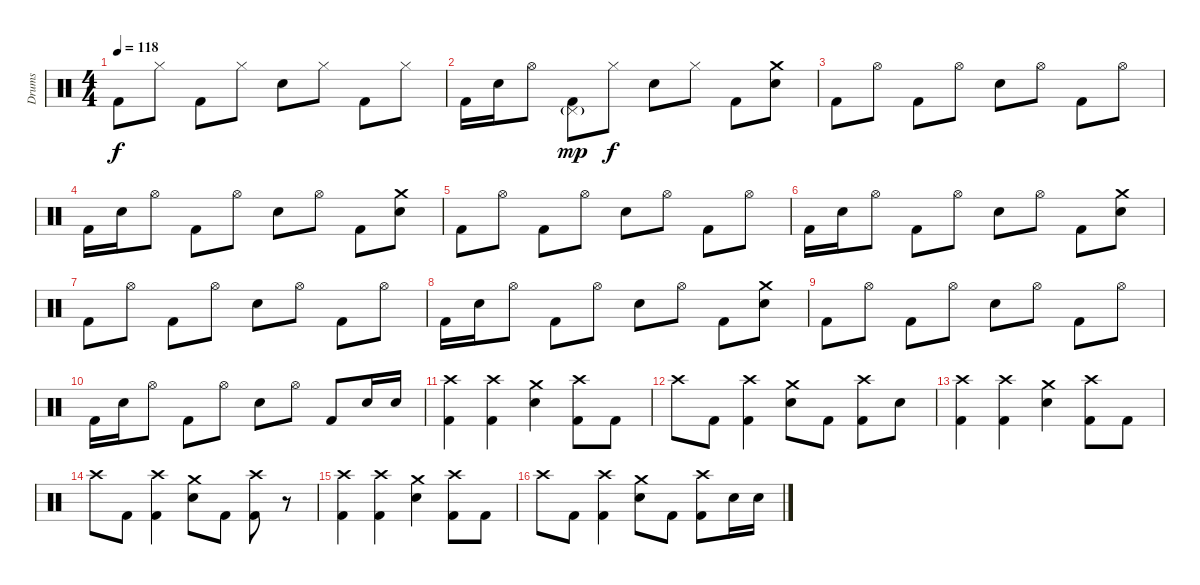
\track ("Drums" "Drums") {instrument percussion bank 5}
\staff {score}
\articulation defaults
\ts (4 4)
\tempo 118
\clef neutral
\ks c "Kick (hit) 2".8{dy f} "Hi-Hat (closed)".8 "Kick (hit) 2".8 "Hi-Hat (closed)".8 "Snare (hit) 2".8 "Hi-Hat (closed)".8 "Kick (hit) 2".8 "Hi-Hat (closed)".8
|
"Kick (hit) 2".16 "Snare (hit) 2".16 "Hi-Hat (open)".8 ("Pedal Hi-Hat (hit)"{g} "Kick (hit) 2").8{dy mp} "Hi-Hat (closed)".8{dy f} "Snare (hit) 2".8 "Hi-Hat (closed)".8 "Kick (hit) 2".8 ("Crash medium (hit)" "Snare (hit) 2").8 |
"Kick (hit) 2".8 "Hi-Hat (open)".8 "Kick (hit) 2".8 "Hi-Hat (open)".8 "Snare (hit) 2".8 "Hi-Hat (open)".8 "Kick (hit) 2".8 "Hi-Hat (open)".8 |
"Kick (hit) 2".16 "Snare (hit) 2".16 "Hi-Hat (open)".8 "Kick (hit) 2".8 "Hi-Hat (open)".8 "Snare (hit) 2".8 "Hi-Hat (open)".8 "Kick (hit) 2".8 ("Crash medium (hit)" "Snare (hit) 2").8 |
"Kick (hit) 2".8 "Hi-Hat (open)".8 "Kick (hit) 2".8 "Hi-Hat (open)".8 "Snare (hit) 2".8 "Hi-Hat (open)".8 "Kick (hit) 2".8 "Hi-Hat (open)".8 |
"Kick (hit) 2".16 "Snare (hit) 2".16 "Hi-Hat (open)".8 "Kick (hit) 2".8 "Hi-Hat (open)".8 "Snare (hit) 2".8 "Hi-Hat (open)".8 "Kick (hit) 2".8 ("Crash medium (hit)" "Snare (hit) 2").8 |
"Kick (hit) 2".8 "Hi-Hat (open)".8 "Kick (hit) 2".8 "Hi-Hat (open)".8 "Snare (hit) 2".8 "Hi-Hat (open)".8 "Kick (hit) 2".8 "Hi-Hat (open)".8 |
"Kick (hit) 2".16 "Snare (hit) 2".16 "Hi-Hat (open)".8 "Kick (hit) 2".8 "Hi-Hat (open)".8 "Snare (hit) 2".8 "Hi-Hat (open)".8 "Kick (hit) 2".8 ("Crash medium (hit)" "Snare (hit) 2").8 |
"Kick (hit) 2".8 "Hi-Hat (open)".8 "Kick (hit) 2".8 "Hi-Hat (open)".8 "Snare (hit) 2".8 "Hi-Hat (open)".8 "Kick (hit) 2".8 "Hi-Hat (open)".8 |
"Kick (hit) 2".16 "Snare (hit) 2".16 "Hi-Hat (open)".8 "Kick (hit) 2".8 "Hi-Hat (open)".8 "Snare (hit) 2".8 "Hi-Hat (open)".8 "Kick (hit) 2".8 "Snare (hit) 2".16 "Snare (hit) 2".16 |
("Crash high (hit)" "Kick (hit) 2").4 ("Crash high (hit)" "Kick (hit) 2").4 ("Crash medium (hit)" "Snare (hit) 2").4 ("Crash high (hit)" "Kick (hit) 2").8 "Kick (hit) 2".8 |
"Crash high (hit)".8 "Kick (hit) 2".8 ("Crash high (hit)" "Kick (hit) 2").4 ("Crash medium (hit)" "Snare (hit) 2").8 "Kick (hit) 2".8 ("Crash high (hit)" "Kick (hit) 2").8 "Snare (hit) 2".8 |
("Crash high (hit)" "Kick (hit) 2").4 ("Crash high (hit)" "Kick (hit) 2").4 ("Crash medium (hit)" "Snare (hit) 2").4 ("Crash high (hit)" "Kick (hit) 2").8 "Kick (hit) 2".8 |
"Crash high (hit)".8 "Kick (hit) 2".8 ("Crash high (hit)" "Kick (hit) 2").4 ("Crash medium (hit)" "Snare (hit) 2").8 "Kick (hit) 2".8 ("Crash high (hit)" "Kick (hit) 2").8 r.8 |
("Crash high (hit)" "Kick (hit) 2").4 ("Crash high (hit)" "Kick (hit) 2").4 ("Crash medium (hit)" "Snare (hit) 2").4 ("Crash high (hit)" "Kick (hit) 2").8 "Kick (hit) 2".8 |
"Crash high (hit)".8 "Kick (hit) 2".8 ("Crash high (hit)" "Kick (hit) 2").4 ("Crash medium (hit)" "Snare (hit) 2").8 "Kick (hit) 2".8 ("Crash high (hit)" "Kick (hit) 2").8 "Snare (hit) 2".16 "Snare (hit) 2".16
